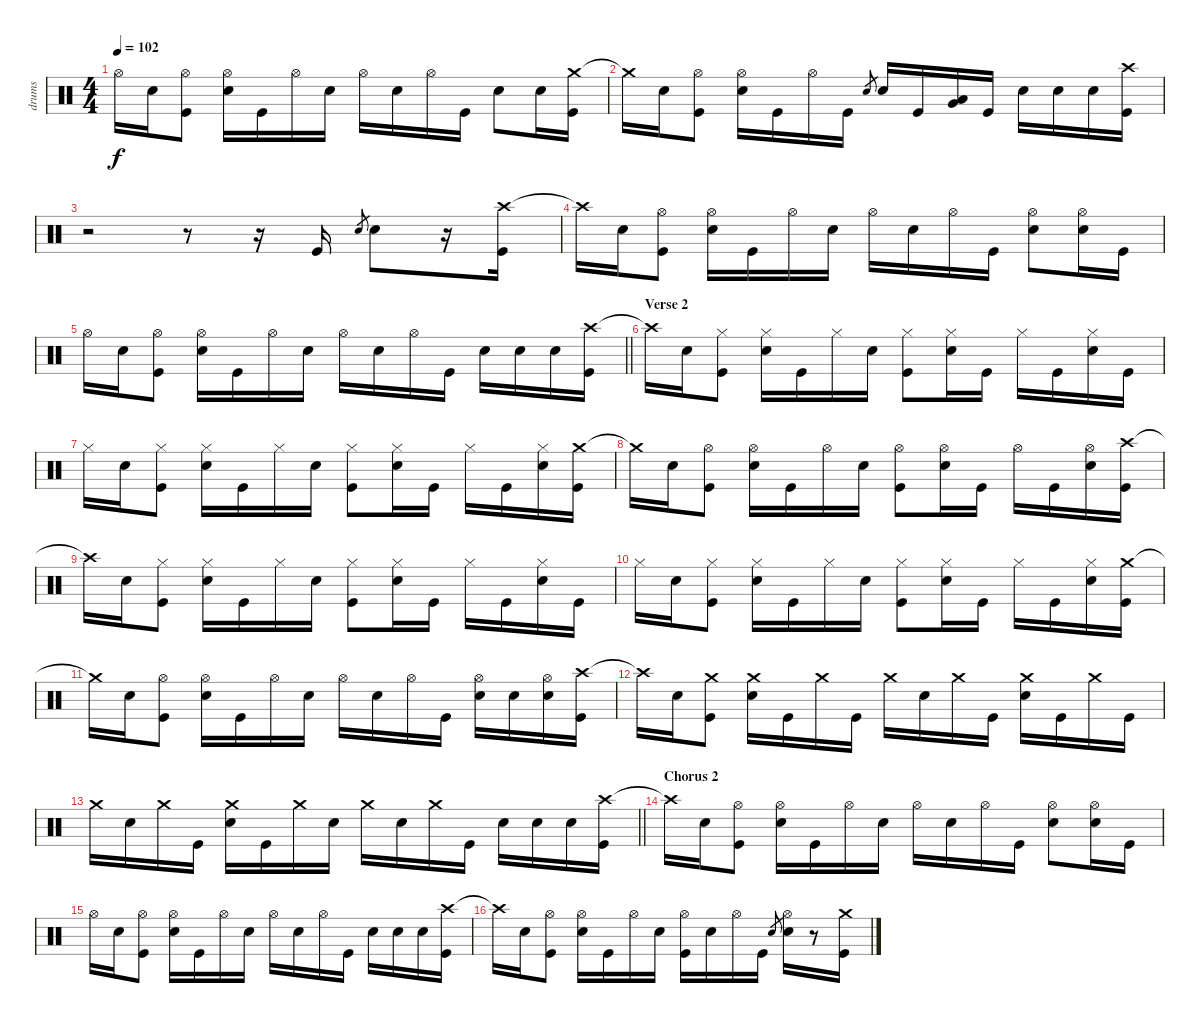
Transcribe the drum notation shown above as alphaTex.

\track ("drums" "drums") {instrument percussion}
\staff {score}
\articulation defaults
\ts (4 4)
\tempo 102
\clef neutral
\ks c "Hi-Hat (open)".16{dy f} "Snare (hit) 2".16
("Kick (hit)" "Hi-Hat (open)").8 ("Snare (hit) 2" "Hi-Hat (open)").16 "Kick (hit)".16 "Hi-Hat (open)".16 "Snare (hit) 2".16 "Hi-Hat (open)".16 "Snare (hit) 2".16 "Hi-Hat (open)".16 "Kick (hit)".16 "Snare (hit) 2".8 "Snare (hit) 2".16 ("Crash medium (hit)" "Kick (hit)").16 |
"Crash medium (hit)"{t}.16 "Snare (hit) 2".16 ("Kick (hit)" "Hi-Hat (open)").8 ("Snare (hit) 2" "Hi-Hat (open)").16 "Kick (hit)".16 "Hi-Hat (open)".16 "Kick (hit)".16 "Snare (hit) 2".8{gr} "Snare (hit) 2".16 "Kick (hit)".16 ("Very Low Tom (hit)" "Low Tom (hit)").16 "Kick (hit)".16 "Snare (hit) 2".16 "Snare (hit) 2".16 "Snare (hit) 2".16 ("Crash high (hit)" "Kick (hit)").16 |
r.2 r.8 r.16 "Kick (hit)".16 "Snare (hit) 2".8{gr} "Snare (hit) 2".8 r.16 ("Crash high (hit)" "Kick (hit)").16 |
"Crash high (hit)"{t}.16 "Snare (hit) 2".16 ("Kick (hit)" "Hi-Hat (open)").8 ("Snare (hit) 2" "Hi-Hat (open)").16 "Kick (hit)".16 "Hi-Hat (open)".16 "Snare (hit) 2".16 "Hi-Hat (open)".16 "Snare (hit) 2".16 "Hi-Hat (open)".16 "Kick (hit)".16 ("Snare (hit) 2" "Hi-Hat (open)").8 ("Snare (hit) 2" "Hi-Hat (open)").16 "Kick (hit)".16 |
\barLineRight lightlight "Hi-Hat (open)".16 "Snare (hit) 2".16
("Kick (hit)" "Hi-Hat (open)").8 ("Snare (hit) 2" "Hi-Hat (open)").16 "Kick (hit)".16 "Hi-Hat (open)".16 "Snare (hit) 2".16 "Hi-Hat (open)".16 "Snare (hit) 2".16 "Hi-Hat (open)".16 "Kick (hit)".16 "Snare (hit) 2".16 "Snare (hit) 2".16 "Snare (hit) 2".16 ("Crash high (hit)" "Kick (hit)").16 |
\section ("" "Verse 2")
"Crash high (hit)"{t}.16 "Snare (hit) 2".16 ("Hi-Hat (closed)" "Kick (hit)").8 ("Hi-Hat (closed)" "Snare (hit) 2").16 "Kick (hit)".16 "Hi-Hat (closed)".16 "Snare (hit) 2".16 ("Hi-Hat (closed)" "Kick (hit)").8 ("Hi-Hat (closed)" "Snare (hit) 2").16 "Kick (hit)".16 "Hi-Hat (closed)".16 "Kick (hit)".16 ("Hi-Hat (closed)" "Snare (hit) 2").16 "Kick (hit)".16 |
"Hi-Hat (closed)".16 "Snare (hit) 2".16 ("Hi-Hat (closed)" "Kick (hit)").8 ("Hi-Hat (closed)" "Snare (hit) 2").16 "Kick (hit)".16 "Hi-Hat (closed)".16 "Snare (hit) 2".16 ("Hi-Hat (closed)" "Kick (hit)").8 ("Hi-Hat (closed)" "Snare (hit) 2").16 "Kick (hit)".16 "Hi-Hat (closed)".16 "Kick (hit)".16 ("Hi-Hat (closed)" "Snare (hit) 2").16 ("Crash medium (hit)" "Kick (hit)").16 |
"Crash medium (hit)"{t}.16 "Snare (hit) 2".16 ("Kick (hit)" "Hi-Hat (open)").8 ("Snare (hit) 2" "Hi-Hat (open)").16 "Kick (hit)".16 "Hi-Hat (open)".16 "Snare (hit) 2".16 ("Kick (hit)" "Hi-Hat (open)").8 ("Hi-Hat (open)" "Snare (hit) 2").16 "Kick (hit)".16 "Hi-Hat (open)".16 "Kick (hit)".16 ("Hi-Hat (open)" "Snare (hit) 2").16 ("Crash high (hit)" "Kick (hit)").16 |
"Crash high (hit)"{t}.16 "Snare (hit) 2".16 ("Hi-Hat (closed)" "Kick (hit)").8 ("Hi-Hat (closed)" "Snare (hit) 2").16 "Kick (hit)".16 "Hi-Hat (closed)".16 "Snare (hit) 2".16 ("Hi-Hat (closed)" "Kick (hit)").8 ("Hi-Hat (closed)" "Snare (hit) 2").16 "Kick (hit)".16 "Hi-Hat (closed)".16 "Kick (hit)".16 ("Hi-Hat (closed)" "Snare (hit) 2").16 "Kick (hit)".16 |
"Hi-Hat (closed)".16 "Snare (hit) 2".16 ("Hi-Hat (closed)" "Kick (hit)").8 ("Hi-Hat (closed)" "Snare (hit) 2").16 "Kick (hit)".16 "Hi-Hat (closed)".16 "Snare (hit) 2".16 ("Hi-Hat (closed)" "Kick (hit)").8 ("Hi-Hat (closed)" "Snare (hit) 2").16 "Kick (hit)".16 "Hi-Hat (closed)".16 "Kick (hit)".16 ("Hi-Hat (closed)" "Snare (hit) 2").16 ("Crash medium (hit)" "Kick (hit)").16 |
"Crash medium (hit)"{t}.16 "Snare (hit) 2".16 ("Kick (hit)" "Hi-Hat (open)").8 ("Snare (hit) 2" "Hi-Hat (open)").16 "Kick (hit)".16 "Hi-Hat (open)".16 "Snare (hit) 2".16 "Hi-Hat (open)".16 "Snare (hit) 2".16 "Hi-Hat (open)".16 "Kick (hit)".16 ("Hi-Hat (open)" "Snare (hit) 2").16 "Snare (hit) 2".16 ("Hi-Hat (open)" "Snare (hit) 2").16 ("Crash high (hit)" "Kick (hit)").16 |
"Crash high (hit)"{t}.16 "Snare (hit) 2".16 ("Crash medium (hit)" "Kick (hit)").8 ("Crash medium (hit)" "Snare (hit) 2").16 "Kick (hit)".16 "Crash medium (hit)".16 "Kick (hit)".16 "Crash medium (hit)".16 "Snare (hit) 2".16 "Crash medium (hit)".16 "Kick (hit)".16 ("Crash medium (hit)" "Snare (hit) 2").16 "Kick (hit)".16 "Crash medium (hit)".16 "Kick (hit)".16 |
\barLineRight lightlight "Crash medium (hit)".16 "Snare (hit) 2".16 "Crash medium (hit)".16 "Kick (hit)".16
("Crash medium (hit)" "Snare (hit) 2").16 "Kick (hit)".16 "Crash medium (hit)".16 "Snare (hit) 2".16 "Crash medium (hit)".16 "Snare (hit) 2".16 "Crash medium (hit)".16 "Kick (hit)".16 "Snare (hit) 2".16 "Snare (hit) 2".16 "Snare (hit) 2".16 ("Crash high (hit)" "Kick (hit)").16 |
\section ("" "Chorus 2")
"Crash high (hit)"{t}.16 "Snare (hit) 2".16 ("Kick (hit)" "Hi-Hat (open)").8 ("Snare (hit) 2" "Hi-Hat (open)").16 "Kick (hit)".16 "Hi-Hat (open)".16 "Snare (hit) 2".16 "Hi-Hat (open)".16 "Snare (hit) 2".16 "Hi-Hat (open)".16 "Kick (hit)".16 ("Snare (hit) 2" "Hi-Hat (open)").8 ("Snare (hit) 2" "Hi-Hat (open)").16 "Kick (hit)".16 |
"Hi-Hat (open)".16 "Snare (hit) 2".16 ("Kick (hit)" "Hi-Hat (open)").8 ("Snare (hit) 2" "Hi-Hat (open)").16 "Kick (hit)".16 "Hi-Hat (open)".16 "Snare (hit) 2".16 "Hi-Hat (open)".16 "Snare (hit) 2".16 "Hi-Hat (open)".16 "Kick (hit)".16 "Snare (hit) 2".16 "Snare (hit) 2".16 "Snare (hit) 2".16 ("Crash high (hit)" "Kick (hit)").16 |
"Crash high (hit)"{t}.16 "Snare (hit) 2".16 ("Kick (hit)" "Hi-Hat (open)").8 ("Snare (hit) 2" "Hi-Hat (open)").16 "Kick (hit)".16 "Hi-Hat (open)".16 "Snare (hit) 2".16 ("Kick (hit)" "Hi-Hat (open)").16 "Snare (hit) 2".16 "Hi-Hat (open)".16 "Kick (hit)".16 "Snare (hit) 2".8{gr} ("Snare (hit) 2" "Hi-Hat (open)").16 r.8 ("Crash medium (hit)" "Kick (hit)").16
